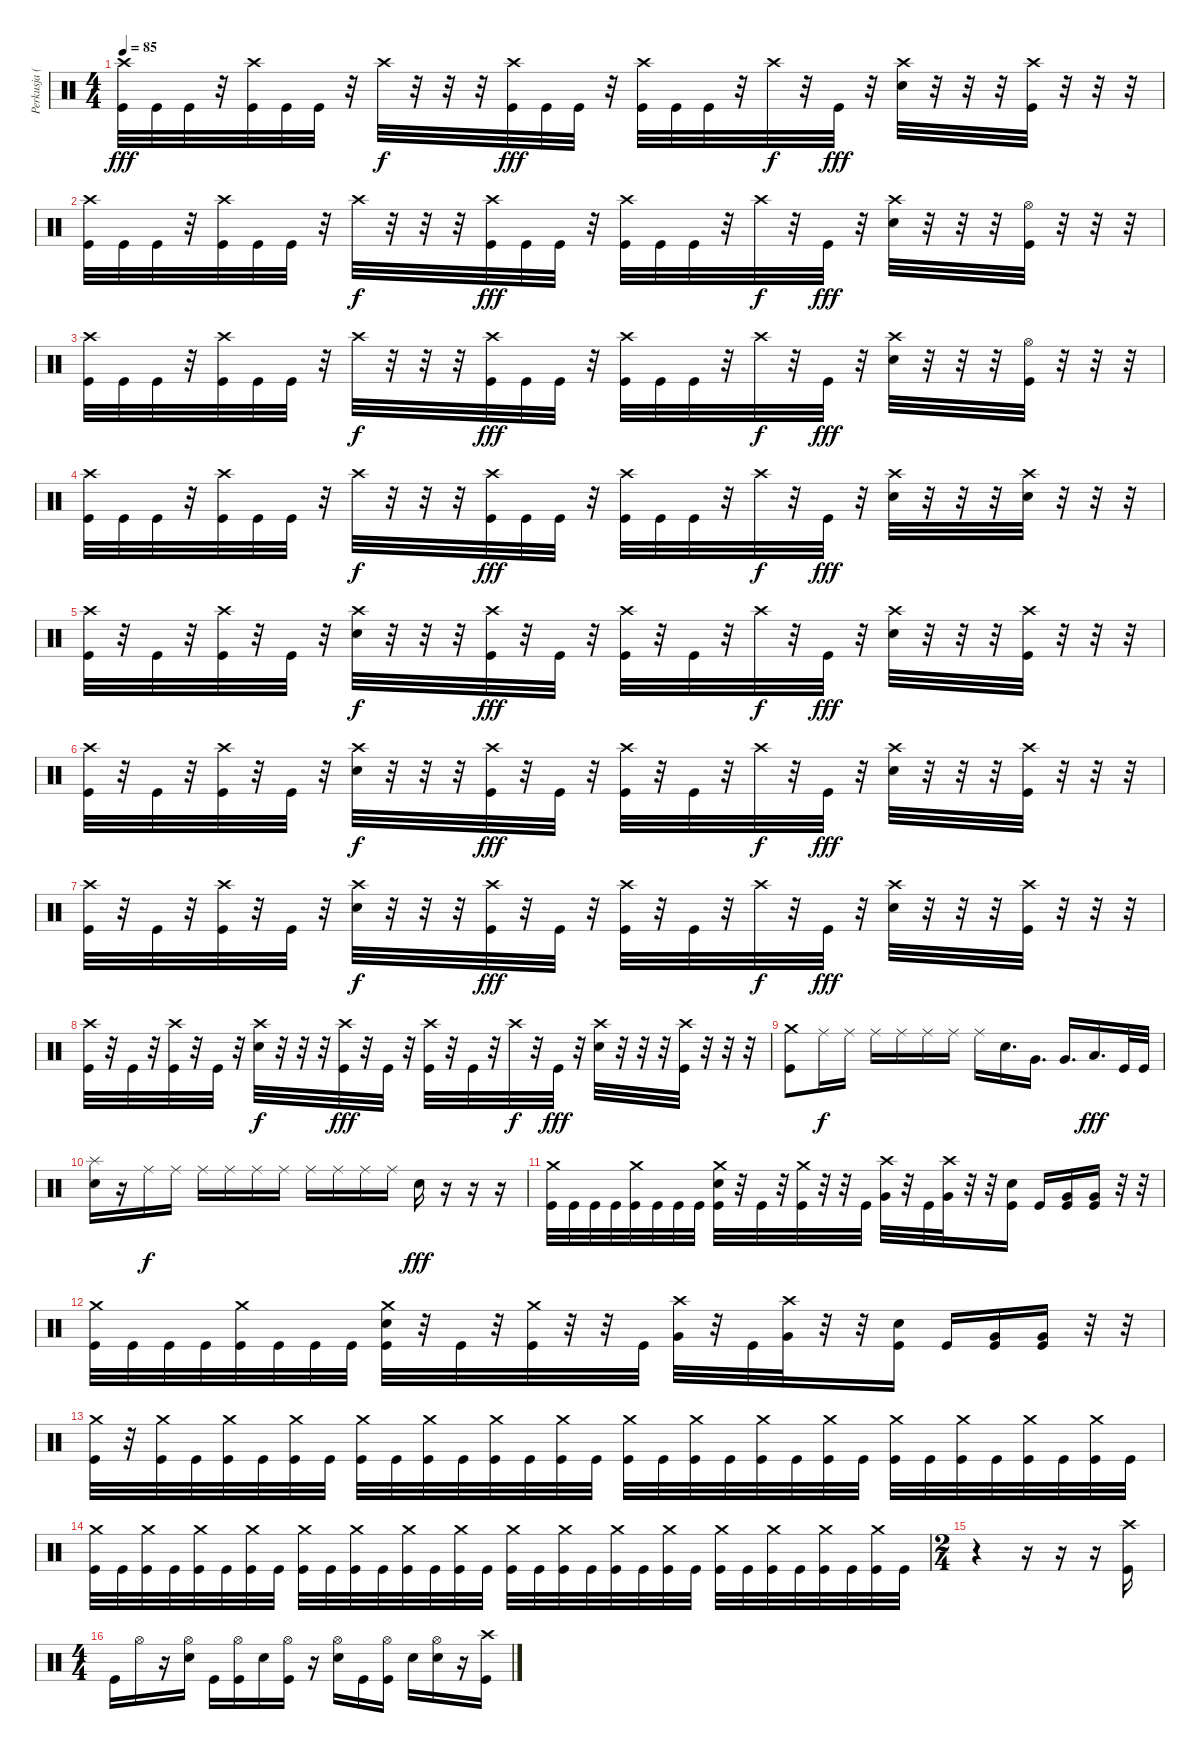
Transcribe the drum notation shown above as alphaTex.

\track ("Perkusja (by kucharz89)" "Perkusja (") {instrument percussion}
\staff {score}
\articulation defaults
\ts (4 4)
\tempo 85
\clef neutral
\ks c
("Crash high (hit)" "Kick (hit)").32{dy fff} "Kick (hit)".32 "Kick (hit)".32 r.32 ("Crash high (hit)" "Kick (hit)").32 "Kick (hit)".32 "Kick (hit)".32 r.32 "Crash high (hit)".32{dy f} r.32 r.32 r.32 ("Crash high (hit)" "Kick (hit)").32{dy fff} "Kick (hit)".32 "Kick (hit)".32 r.32 ("Crash high (hit)" "Kick (hit)").32 "Kick (hit)".32 "Kick (hit)".32 r.32 "Crash high (hit)".32{dy f} r.32 "Kick (hit)".32{dy fff} r.32 ("Crash high (hit)" "Electric Snare (hit)").32 r.32 r.32 r.32 ("Crash high (hit)" "Kick (hit)").32 r.32 r.32 r.32 |
("Crash high (hit)" "Kick (hit)").32 "Kick (hit)".32 "Kick (hit)".32 r.32 ("Crash high (hit)" "Kick (hit)").32 "Kick (hit)".32 "Kick (hit)".32 r.32 "Crash high (hit)".32{dy f} r.32 r.32 r.32 ("Crash high (hit)" "Kick (hit)").32{dy fff} "Kick (hit)".32 "Kick (hit)".32 r.32 ("Crash high (hit)" "Kick (hit)").32 "Kick (hit)".32 "Kick (hit)".32 r.32 "Crash high (hit)".32{dy f} r.32 "Kick (hit)".32{dy fff} r.32 ("Crash high (hit)" "Electric Snare (hit)").32 r.32 r.32 r.32 ("Hi-Hat (open)" "Kick (hit)").32 r.32 r.32 r.32 |
("Crash high (hit)" "Kick (hit)").32 "Kick (hit)".32 "Kick (hit)".32 r.32 ("Crash high (hit)" "Kick (hit)").32 "Kick (hit)".32 "Kick (hit)".32 r.32 "Crash high (hit)".32{dy f} r.32 r.32 r.32 ("Crash high (hit)" "Kick (hit)").32{dy fff} "Kick (hit)".32 "Kick (hit)".32 r.32 ("Crash high (hit)" "Kick (hit)").32 "Kick (hit)".32 "Kick (hit)".32 r.32 "Crash high (hit)".32{dy f} r.32 "Kick (hit)".32{dy fff} r.32 ("Crash high (hit)" "Electric Snare (hit)").32 r.32 r.32 r.32 ("Hi-Hat (open)" "Kick (hit)").32 r.32 r.32 r.32 |
("Crash high (hit)" "Kick (hit)").32 "Kick (hit)".32 "Kick (hit)".32 r.32 ("Crash high (hit)" "Kick (hit)").32 "Kick (hit)".32 "Kick (hit)".32 r.32 "Crash high (hit)".32{dy f} r.32 r.32 r.32 ("Crash high (hit)" "Kick (hit)").32{dy fff} "Kick (hit)".32 "Kick (hit)".32 r.32 ("Crash high (hit)" "Kick (hit)").32 "Kick (hit)".32 "Kick (hit)".32 r.32 "Crash high (hit)".32{dy f} r.32 "Kick (hit)".32{dy fff} r.32 ("Crash high (hit)" "Electric Snare (hit)").32 r.32 r.32 r.32 ("Crash high (hit)" "Electric Snare (hit)").32 r.32 r.32 r.32 |
("Crash high (hit)" "Kick (hit)").32 r.32 "Kick (hit)".32 r.32 ("Crash high (hit)" "Kick (hit)").32 r.32 "Kick (hit)".32 r.32 ("Crash high (hit)" "Electric Snare (hit)").32{dy f} r.32 r.32 r.32 ("Crash high (hit)" "Kick (hit)").32{dy fff} r.32 "Kick (hit)".32 r.32 ("Crash high (hit)" "Kick (hit)").32 r.32 "Kick (hit)".32 r.32 "Crash high (hit)".32{dy f} r.32 "Kick (hit)".32{dy fff} r.32 ("Crash high (hit)" "Electric Snare (hit)").32 r.32 r.32 r.32 ("Crash high (hit)" "Kick (hit)").32 r.32 r.32 r.32 |
("Crash high (hit)" "Kick (hit)").32 r.32 "Kick (hit)".32 r.32 ("Crash high (hit)" "Kick (hit)").32 r.32 "Kick (hit)".32 r.32 ("Crash high (hit)" "Electric Snare (hit)").32{dy f} r.32 r.32 r.32 ("Crash high (hit)" "Kick (hit)").32{dy fff} r.32 "Kick (hit)".32 r.32 ("Crash high (hit)" "Kick (hit)").32 r.32 "Kick (hit)".32 r.32 "Crash high (hit)".32{dy f} r.32 "Kick (hit)".32{dy fff} r.32 ("Crash high (hit)" "Electric Snare (hit)").32 r.32 r.32 r.32 ("Crash high (hit)" "Kick (hit)").32 r.32 r.32 r.32 |
("Crash high (hit)" "Kick (hit)").32 r.32 "Kick (hit)".32 r.32 ("Crash high (hit)" "Kick (hit)").32 r.32 "Kick (hit)".32 r.32 ("Crash high (hit)" "Electric Snare (hit)").32{dy f} r.32 r.32 r.32 ("Crash high (hit)" "Kick (hit)").32{dy fff} r.32 "Kick (hit)".32 r.32 ("Crash high (hit)" "Kick (hit)").32 r.32 "Kick (hit)".32 r.32 "Crash high (hit)".32{dy f} r.32 "Kick (hit)".32{dy fff} r.32 ("Crash high (hit)" "Electric Snare (hit)").32 r.32 r.32 r.32 ("Crash high (hit)" "Kick (hit)").32 r.32 r.32 r.32 |
("Crash high (hit)" "Kick (hit)").32 r.32 "Kick (hit)".32 r.32 ("Crash high (hit)" "Kick (hit)").32 r.32 "Kick (hit)".32 r.32 ("Crash high (hit)" "Electric Snare (hit)").32{dy f} r.32 r.32 r.32 ("Crash high (hit)" "Kick (hit)").32{dy fff} r.32 "Kick (hit)".32 r.32 ("Crash high (hit)" "Kick (hit)").32 r.32 "Kick (hit)".32 r.32 "Crash high (hit)".32{dy f} r.32 "Kick (hit)".32{dy fff} r.32 ("Crash high (hit)" "Electric Snare (hit)").32 r.32 r.32 r.32 ("Crash high (hit)" "Kick (hit)").32 r.32 r.32 r.32 |
("Crash medium (hit)" "Kick (hit)").8 "Ride (middle)".16{dy f} "Ride (middle)".16 "Ride (middle)".16 "Ride (middle)".16 "Ride (middle)".16 "Ride (middle)".16 "Ride (middle)".16 "Electric Snare (hit)".16{d} "Very Low Tom (hit)".16{d} "Very Low Tom (hit)".16{d} "Low Floor Tom (hit)".16{d dy fff} "Kick (hit)".32 "Kick (hit)".32 |
("Splash (hit)" "Electric Snare (hit)").16 r.16 "Ride (middle)".16{dy f} "Ride (middle)".16 "Ride (middle)".16 "Ride (middle)".16 "Ride (middle)".16 "Ride (middle)".16 "Ride (middle)".16 "Ride (middle)".16 "Ride (middle)".16 "Ride (middle)".16 "Electric Snare (hit)".16{dy fff} r.16 r.16 r.16 |
("Crash medium (hit)" "Kick (hit)").32 "Kick (hit)".32 "Kick (hit)".32 "Kick (hit)".32 ("Crash medium (hit)" "Kick (hit)").32 "Kick (hit)".32 "Kick (hit)".32 "Kick (hit)".32 ("Crash medium (hit)" "Electric Snare (hit)" "Kick (hit)").32 r.32 "Kick (hit)".32 r.32 ("Crash medium (hit)" "Kick (hit)").32 r.32 r.32 "Kick (hit)".32 ("Crash high (hit)" "Very Low Tom (hit)").32 r.32 "Kick (hit)".32 ("Crash high (hit)" "Very Low Tom (hit)").32 r.32 r.32 ("Electric Snare (hit)" "Kick (hit)").16 "Kick (hit)".16 ("Very Low Tom (hit)" "Kick (hit)").16 ("Very Low Tom (hit)" "Kick (hit)").16 r.32 r.32 |
("Crash medium (hit)" "Kick (hit)").32 "Kick (hit)".32 "Kick (hit)".32 "Kick (hit)".32 ("Crash medium (hit)" "Kick (hit)").32 "Kick (hit)".32 "Kick (hit)".32 "Kick (hit)".32 ("Crash medium (hit)" "Electric Snare (hit)" "Kick (hit)").32 r.32 "Kick (hit)".32 r.32 ("Crash medium (hit)" "Kick (hit)").32 r.32 r.32 "Kick (hit)".32 ("Crash high (hit)" "Very Low Tom (hit)").32 r.32 "Kick (hit)".32 ("Crash high (hit)" "Very Low Tom (hit)").32 r.32 r.32 ("Electric Snare (hit)" "Kick (hit)").16 "Kick (hit)".16 ("Very Low Tom (hit)" "Kick (hit)").16 ("Very Low Tom (hit)" "Kick (hit)").16 r.32 r.32 |
("Crash medium (hit)" "Kick (hit)").32 r.32 ("Crash medium (hit)" "Kick (hit)").32 "Kick (hit)".32 ("Crash medium (hit)" "Kick (hit)").32 "Kick (hit)".32 ("Crash medium (hit)" "Kick (hit)").32 "Kick (hit)".32 ("Crash medium (hit)" "Kick (hit)").32 "Kick (hit)".32 ("Crash medium (hit)" "Kick (hit)").32 "Kick (hit)".32 ("Crash medium (hit)" "Kick (hit)").32 "Kick (hit)".32 ("Crash medium (hit)" "Kick (hit)").32 "Kick (hit)".32 ("Crash medium (hit)" "Kick (hit)").32 "Kick (hit)".32 ("Crash medium (hit)" "Kick (hit)").32 "Kick (hit)".32 ("Crash medium (hit)" "Kick (hit)").32 "Kick (hit)".32 ("Crash medium (hit)" "Kick (hit)").32 "Kick (hit)".32 ("Crash medium (hit)" "Kick (hit)").32 "Kick (hit)".32 ("Crash medium (hit)" "Kick (hit)").32 "Kick (hit)".32 ("Crash medium (hit)" "Kick (hit)").32 "Kick (hit)".32 ("Crash medium (hit)" "Kick (hit)").32 "Kick (hit)".32 |
("Crash medium (hit)" "Kick (hit)").32 "Kick (hit)".32 ("Crash medium (hit)" "Kick (hit)").32 "Kick (hit)".32 ("Crash medium (hit)" "Kick (hit)").32 "Kick (hit)".32 ("Crash medium (hit)" "Kick (hit)").32 "Kick (hit)".32 ("Crash medium (hit)" "Kick (hit)").32 "Kick (hit)".32 ("Crash medium (hit)" "Kick (hit)").32 "Kick (hit)".32 ("Crash medium (hit)" "Kick (hit)").32 "Kick (hit)".32 ("Crash medium (hit)" "Kick (hit)").32 "Kick (hit)".32 ("Crash medium (hit)" "Kick (hit)").32 "Kick (hit)".32 ("Crash medium (hit)" "Kick (hit)").32 "Kick (hit)".32 ("Crash medium (hit)" "Kick (hit)").32 "Kick (hit)".32 ("Crash medium (hit)" "Kick (hit)").32 "Kick (hit)".32 ("Crash medium (hit)" "Kick (hit)").32 "Kick (hit)".32 ("Crash medium (hit)" "Kick (hit)").32 "Kick (hit)".32 ("Crash medium (hit)" "Kick (hit)").32 "Kick (hit)".32 ("Crash medium (hit)" "Kick (hit)").32 "Kick (hit)".32 |
\ts (2 4)
r.4 r.16 r.16 r.16 ("Crash high (hit)" "Kick (hit)").16 |
\ts (4 4)
"Kick (hit)".16 "Hi-Hat (open)".16 r.16 ("Hi-Hat (open)" "Electric Snare (hit)").16 "Kick (hit)".16 ("Hi-Hat (open)" "Kick (hit)").16 "Electric Snare (hit)".16 ("Hi-Hat (open)" "Kick (hit)").16 r.16 ("Hi-Hat (open)" "Electric Snare (hit)").16 "Kick (hit)".16 ("Hi-Hat (open)" "Kick (hit)").16 "Electric Snare (hit)".16 ("Hi-Hat (open)" "Electric Snare (hit)").16 r.16 ("Crash high (hit)" "Kick (hit)").16
